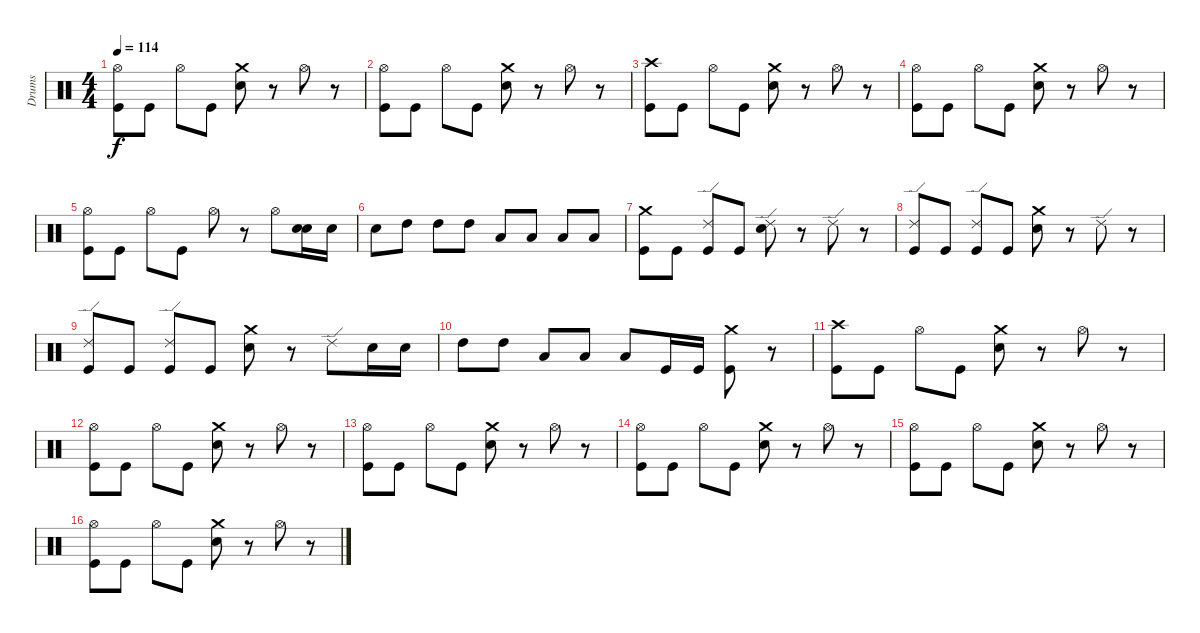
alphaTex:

\track ("Drums" "Drums") {instrument percussion}
\staff {score}
\articulation defaults
\ts (4 4)
\tempo 114
\clef neutral
\ks c
("Kick (hit)" "Hi-Hat (open)").8{dy f} "Kick (hit)".8 "Hi-Hat (open)".8 "Kick (hit)".8 ("Crash medium (hit)" "Electric Snare (hit)").8 r.8 "Hi-Hat (open)".8 r.8 |
("Kick (hit)" "Hi-Hat (open)").8 "Kick (hit)".8 "Hi-Hat (open)".8 "Kick (hit)".8 ("Crash medium (hit)" "Electric Snare (hit)").8 r.8 "Hi-Hat (open)".8 r.8 |
("Crash high (hit)" "Kick (hit)").8 "Kick (hit)".8 "Hi-Hat (open)".8 "Kick (hit)".8 ("Crash medium (hit)" "Electric Snare (hit)").8 r.8 "Hi-Hat (open)".8 r.8 |
("Kick (hit)" "Hi-Hat (open)").8 "Kick (hit)".8 "Hi-Hat (open)".8 "Kick (hit)".8 ("Crash medium (hit)" "Electric Snare (hit)").8 r.8 "Hi-Hat (open)".8 r.8 |
("Hi-Hat (open)" "Kick (hit)").8 "Kick (hit)".8 "Hi-Hat (open)".8 "Kick (hit)".8 "Hi-Hat (open)".8 r.8 "Hi-Hat (open)".8 ("Electric Snare (hit)" "Electric Snare (hit)").16 "Electric Snare (hit)".16 |
"Electric Snare (hit)".8 "High Tom (hit)".8 "High Tom (hit)".8 "High Tom (hit)".8 "Low Tom (hit)".8 "Low Tom (hit)".8 "Low Floor Tom (hit)".8 "Low Floor Tom (hit)".8 |
("Kick (hit)" "Crash medium (hit)").8 "Kick (hit)".8 ("Kick (hit)" "Ride (edge) 2").8 "Kick (hit)".8 ("Electric Snare (hit)" "Ride (edge) 2").8 r.8 "Ride (edge) 2".8 r.8 |
("Ride (edge) 2" "Kick (hit)").8 "Kick (hit)".8 ("Kick (hit)" "Ride (edge) 2").8 "Kick (hit)".8 ("Crash medium (hit)" "Electric Snare (hit)").8 r.8 "Ride (edge) 2".8 r.8 |
("Ride (edge) 2" "Kick (hit)").8 "Kick (hit)".8 ("Kick (hit)" "Ride (edge) 2").8 "Kick (hit)".8 ("Crash medium (hit)" "Electric Snare (hit)").8 r.8 "Ride (edge) 2".8 "Electric Snare (hit)".16 "Electric Snare (hit)".16 |
"High Tom (hit)".8 "High Tom (hit)".8 "Low Tom (hit)".8 "Low Tom (hit)".8 "Low Floor Tom (hit)".8 "Kick (hit)".16 "Kick (hit)".16 ("Crash medium (hit)" "Kick (hit)").8 r.8 |
("Crash high (hit)" "Kick (hit)").8 "Kick (hit)".8 "Hi-Hat (open)".8 "Kick (hit)".8 ("Crash medium (hit)" "Electric Snare (hit)").8 r.8 "Hi-Hat (open)".8 r.8 |
("Kick (hit)" "Hi-Hat (open)").8 "Kick (hit)".8 "Hi-Hat (open)".8 "Kick (hit)".8 ("Crash medium (hit)" "Electric Snare (hit)").8 r.8 "Hi-Hat (open)".8 r.8 |
("Kick (hit)" "Hi-Hat (open)").8 "Kick (hit)".8 "Hi-Hat (open)".8 "Kick (hit)".8 ("Crash medium (hit)" "Electric Snare (hit)").8 r.8 "Hi-Hat (open)".8 r.8 |
("Kick (hit)" "Hi-Hat (open)").8 "Kick (hit)".8 "Hi-Hat (open)".8 "Kick (hit)".8 ("Crash medium (hit)" "Electric Snare (hit)").8 r.8 "Hi-Hat (open)".8 r.8 |
("Kick (hit)" "Hi-Hat (open)").8 "Kick (hit)".8 "Hi-Hat (open)".8 "Kick (hit)".8 ("Crash medium (hit)" "Electric Snare (hit)").8 r.8 "Hi-Hat (open)".8 r.8 |
("Kick (hit)" "Hi-Hat (open)").8 "Kick (hit)".8 "Hi-Hat (open)".8 "Kick (hit)".8 ("Crash medium (hit)" "Electric Snare (hit)").8 r.8 "Hi-Hat (open)".8 r.8
